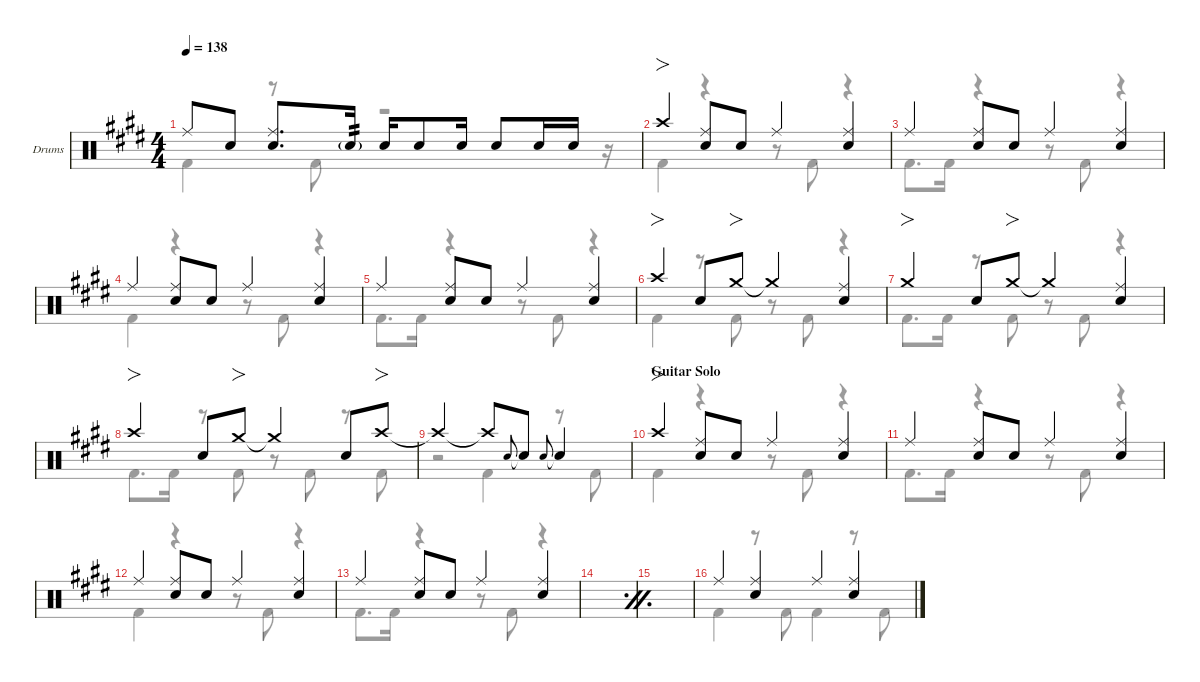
\defaultSystemsLayout 4
\hideDynamics
\bracketExtendMode nobrackets
\firstSystemTrackNameOrientation horizontal
\track ("Drums" "Drums") {defaultSystemsLayout 4 instrument percussion}
\staff {score}
\articulation defaults
\voice
\ts (4 4)
\tempo 138
\clef neutral
\scale
0.244461
\ks c#minor "Ride (middle)"{acc forcenatural}.8{dy f beam Up} "Snare (hit) 2"{acc forcenatural}.8{beam Up beam split}
("Snare (hit) 2"{acc forcenatural} "Ride (middle)"{acc forcenatural}).8{d beam Up} "Snare (hit) 2"{g acc forcenatural}.16{tp 2 dy mp beam Up} "Snare (hit) 2"{acc forcenatural}.16{dy f beam Up} "Snare (hit) 2"{acc forcenatural}.8{beam Up} "Snare (hit) 2"{acc forcenatural}.16{beam Up beam split} "Snare (hit) 2"{acc forcenatural}.8{beam Up} "Snare (hit) 2"{acc forcenatural}.16{dy mf beam Up} "Snare (hit) 2"{acc forcenatural}.16{beam Up} |
\scale
0.266618 "Crash high (hit)"{acc forcenatural}.4{fo dy f beam Up} ("Ride (middle)"{acc forcenatural} "Snare (hit) 2"{acc forcenatural}).8{beam Up} "Snare (hit) 2"{acc forcenatural}.8{beam Up} "Ride (middle)"{acc forcenatural}.4{beam Up} ("Ride (middle)"{acc forcenatural} "Snare (hit) 2"{acc forcenatural}).4{beam Up} |
\scale
0.244461 "Ride (middle)"{acc forcenatural}.4{beam Up} ("Ride (middle)"{acc forcenatural} "Snare (hit) 2"{acc forcenatural}).8{beam Up} "Snare (hit) 2"{acc forcenatural}.8{beam Up} "Ride (middle)"{acc forcenatural}.4{beam Up} ("Ride (middle)"{acc forcenatural} "Snare (hit) 2"{acc forcenatural}).4{beam Up} |
\scale
0.244461 "Ride (middle)"{acc forcenatural}.4{beam Up} ("Ride (middle)"{acc forcenatural} "Snare (hit) 2"{acc forcenatural}).8{beam Up} "Snare (hit) 2"{acc forcenatural}.8{beam Up} "Ride (middle)"{acc forcenatural}.4{beam Up} ("Ride (middle)"{acc forcenatural} "Snare (hit) 2"{acc forcenatural}).4{beam Up} |
\scale
0.244461 "Ride (middle)"{acc forcenatural}.4{beam Up} ("Ride (middle)"{acc forcenatural} "Snare (hit) 2"{acc forcenatural}).8{beam Up} "Snare (hit) 2"{acc forcenatural}.8{beam Up} "Ride (middle)"{acc forcenatural}.4{beam Up} ("Ride (middle)"{acc forcenatural} "Snare (hit) 2"{acc forcenatural}).4{beam Up} |
\scale
0.267605 "Crash high (hit)"{acc forcenatural}.4{fo beam Up} "Snare (hit) 2"{acc forcenatural}.8{beam Up} "Crash medium (hit)"{acc forcenatural}.8{fo beam Up} "Crash medium (hit)"{t acc forcenatural}.4{beam Up} ("Ride (middle)"{acc forcenatural} "Snare (hit) 2"{acc forcenatural}).4{beam Up} |
\scale
0.244132 "Crash medium (hit)"{acc forcenatural}.4{fo beam Up} "Snare (hit) 2"{acc forcenatural}.8{beam Up} "Crash medium (hit)"{acc forcenatural}.8{fo beam Up} "Crash medium (hit)"{t acc forcenatural}.4{beam Up} ("Ride (middle)"{acc forcenatural} "Snare (hit) 2"{acc forcenatural}).4{beam Up} |
\scale
0.244132 "Crash high (hit)"{acc forcenatural}.4{fo beam Up} "Snare (hit) 2"{acc forcenatural}.8{beam Up} "Crash medium (hit)"{acc forcenatural}.8{fo beam Up} "Crash medium (hit)"{t acc forcenatural}.4{beam Up} "Snare (hit) 2"{acc forcenatural}.8{beam Up} "Crash high (hit)"{acc forcenatural}.8{fo beam Up} |
\scale
0.244132 "Crash high (hit)"{t acc forcenatural}.2{beam Up} "Crash high (hit)"{t acc forcenatural}.8{beam Up} "Snare (hit) 2"{acc forcenatural}.8{gr onbeat beam Up} "Snare (hit) 2"{t acc forcenatural}.8{beam Up} "Snare (hit) 2"{acc forcenatural}.8{gr onbeat beam Up} "Snare (hit) 2"{t acc forcenatural}.4{beam Up} |
\section ("" "Guitar Solo")
\scale
0.267605 "Crash high (hit)"{acc forcenatural}.4{fo beam Up} ("Ride (middle)"{acc forcenatural} "Snare (hit) 2"{acc forcenatural}).8{beam Up} "Snare (hit) 2"{acc forcenatural}.8{beam Up} "Ride (middle)"{acc forcenatural}.4{beam Up} ("Ride (middle)"{acc forcenatural} "Snare (hit) 2"{acc forcenatural}).4{beam Up} |
\scale
0.244132 "Ride (middle)"{acc forcenatural}.4{beam Up} ("Ride (middle)"{acc forcenatural} "Snare (hit) 2"{acc forcenatural}).8{beam Up} "Snare (hit) 2"{acc forcenatural}.8{beam Up} "Ride (middle)"{acc forcenatural}.4{beam Up} ("Ride (middle)"{acc forcenatural} "Snare (hit) 2"{acc forcenatural}).4{beam Up} |
\scale
0.244132 "Ride (middle)"{acc forcenatural}.4{beam Up} ("Ride (middle)"{acc forcenatural} "Snare (hit) 2"{acc forcenatural}).8{beam Up} "Snare (hit) 2"{acc forcenatural}.8{beam Up} "Ride (middle)"{acc forcenatural}.4{beam Up} ("Ride (middle)"{acc forcenatural} "Snare (hit) 2"{acc forcenatural}).4{beam Up} |
\scale
0.244132 "Ride (middle)"{acc forcenatural}.4{beam Up} ("Ride (middle)"{acc forcenatural} "Snare (hit) 2"{acc forcenatural}).8{beam Up} "Snare (hit) 2"{acc forcenatural}.8{beam Up} "Ride (middle)"{acc forcenatural}.4{beam Up} ("Ride (middle)"{acc forcenatural} "Snare (hit) 2"{acc forcenatural}).4{beam Up} |
\simile firstofdouble
\scale
0.267605 |
\simile secondofdouble
\scale
0.244132 |
\simile none
\scale
0.244132 "Ride (middle)"{acc forcenatural}.4{beam Up} ("Ride (middle)"{acc forcenatural} "Snare (hit) 2"{acc forcenatural}).4{beam Up} "Ride (middle)"{acc forcenatural}.4{beam Up} ("Ride (middle)"{acc forcenatural} "Snare (hit) 2"{acc forcenatural}).4{beam Up}
\voice
\clef neutral
\ottava regular
\simile none
\scale
0.244461
\ks c#minor "Kick (hit) 2"{acc forcenatural}.4{dy f beam Down}
r.8{beam Down} "Kick (hit) 2"{acc forcenatural}.8{beam Down} r.2{beam Down} r.16{beam Down} |
\scale
0.266618 "Kick (hit) 2"{acc forcenatural}.4{beam Down} r.4{beam Down} r.8{beam Down} "Kick (hit) 2"{acc forcenatural}.8{beam Down} r.4{beam Down} |
\scale
0.244461 "Kick (hit) 2"{acc forcenatural}.8{d beam Down} "Kick (hit) 2"{acc forcenatural}.16{beam Down} r.4{beam Down} r.8{beam Down} "Kick (hit) 2"{acc forcenatural}.8{beam Down} r.4{beam Down} |
\scale
0.244461 "Kick (hit) 2"{acc forcenatural}.4{beam Down} r.4{beam Down} r.8{beam Down} "Kick (hit) 2"{acc forcenatural}.8{beam Down} r.4{beam Down} |
\scale
0.244461 "Kick (hit) 2"{acc forcenatural}.8{d beam Down} "Kick (hit) 2"{acc forcenatural}.16{beam Down} r.4{beam Down} r.8{beam Down} "Kick (hit) 2"{acc forcenatural}.8{beam Down} r.4{beam Down} |
\scale
0.267605 "Kick (hit) 2"{acc forcenatural}.4{beam Down} r.8{beam Down} "Kick (hit) 2"{acc forcenatural}.8{beam Down} r.8{beam Down} "Kick (hit) 2"{acc forcenatural}.8{beam Down} r.4{beam Down} |
\scale
0.244132 "Kick (hit) 2"{acc forcenatural}.8{d beam Down} "Kick (hit) 2"{acc forcenatural}.16{beam Down beam split} r.8{beam Down beam split} "Kick (hit) 2"{acc forcenatural}.8{beam Down} r.8{beam Down} "Kick (hit) 2"{acc forcenatural}.8{beam Down} r.4{beam Down} |
\scale
0.244132 "Kick (hit) 2"{acc forcenatural}.8{d beam Down} "Kick (hit) 2"{acc forcenatural}.16{beam Down beam split} r.8{beam Down beam split} "Kick (hit) 2"{acc forcenatural}.8{beam Down} r.8{beam Down} "Kick (hit) 2"{acc forcenatural}.8{beam Down} r.8{beam Down} "Kick (hit) 2"{acc forcenatural}.8{beam Down} |
\scale
0.244132 r.2{beam Down} "Kick (hit) 2"{acc forcenatural}.4{beam Down} r.8{beam Down} "Kick (hit) 2"{acc forcenatural}.8{beam Down} |
\scale
0.267605 "Kick (hit) 2"{acc forcenatural}.4{beam Down} r.4{beam Down} r.8{beam Down} "Kick (hit) 2"{acc forcenatural}.8{beam Down} r.4{beam Down} |
\scale
0.244132 "Kick (hit) 2"{acc forcenatural}.8{d beam Down} "Kick (hit) 2"{acc forcenatural}.16{beam Down} r.4{beam Down} r.8{beam Down} "Kick (hit) 2"{acc forcenatural}.8{beam Down} r.4{beam Down} |
\scale
0.244132 "Kick (hit) 2"{acc forcenatural}.4{beam Down} r.4{beam Down} r.8{beam Down} "Kick (hit) 2"{acc forcenatural}.8{beam Down} r.4{beam Down} |
\scale
0.244132 "Kick (hit) 2"{acc forcenatural}.8{d beam Down} "Kick (hit) 2"{acc forcenatural}.16{beam Down} r.4{beam Down} r.8{beam Down} "Kick (hit) 2"{acc forcenatural}.8{beam Down} r.4{beam Down} |
\simile firstofdouble
\scale
0.267605 |
\simile secondofdouble
\scale
0.244132 |
\simile none
\scale
0.244132 "Kick (hit) 2"{acc forcenatural}.4{beam Down} r.8{beam Down} "Kick (hit) 2"{acc forcenatural}.8{beam Down} "Kick (hit) 2"{acc forcenatural}.4{beam Down} r.8{beam Down} "Kick (hit) 2"{acc forcenatural}.8{beam Down}
